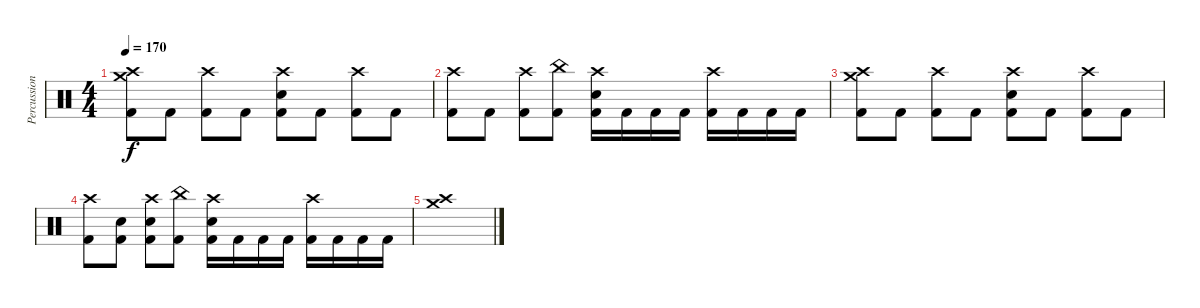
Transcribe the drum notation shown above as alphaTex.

\track ("Percussion" "Percussion") {instrument percussion}
\staff {score}
\articulation defaults
\ts (4 4)
\tempo 170
\clef neutral
\ks c
("Crash medium (hit)" "Crash high (hit)" "Kick (hit) 2").8{dy f} "Kick (hit) 2".8 ("Crash high (hit)" "Kick (hit) 2").8 "Kick (hit) 2".8 ("Snare (hit) 2" "Crash high (hit)" "Kick (hit) 2").8 "Kick (hit) 2".8 ("Crash high (hit)" "Kick (hit) 2").8 "Kick (hit) 2".8 |
("Crash high (hit)" "Kick (hit) 2").8 "Kick (hit) 2".8 ("Crash high (hit)" "Kick (hit) 2").8 ("China (hit)" "Kick (hit) 2").8 ("Snare (hit) 2" "Crash high (hit)" "Kick (hit) 2").16 "Kick (hit) 2".16 "Kick (hit) 2".16 "Kick (hit) 2".16 ("Crash high (hit)" "Kick (hit) 2").16 "Kick (hit) 2".16 "Kick (hit) 2".16 "Kick (hit) 2".16 |
("Crash medium (hit)" "Crash high (hit)" "Kick (hit) 2").8 "Kick (hit) 2".8 ("Crash high (hit)" "Kick (hit) 2").8 "Kick (hit) 2".8 ("Snare (hit) 2" "Crash high (hit)" "Kick (hit) 2").8 "Kick (hit) 2".8 ("Crash high (hit)" "Kick (hit) 2").8 "Kick (hit) 2".8 |
("Crash high (hit)" "Kick (hit) 2").8 ("Snare (hit) 2" "Kick (hit) 2").8 ("Snare (hit) 2" "Crash high (hit)" "Kick (hit) 2").8 ("China (hit)" "Kick (hit) 2").8 ("Snare (hit) 2" "Crash high (hit)" "Kick (hit) 2").16 "Kick (hit) 2".16 "Kick (hit) 2".16 "Kick (hit) 2".16 ("Crash high (hit)" "Kick (hit) 2").16 "Kick (hit) 2".16 "Kick (hit) 2".16 "Kick (hit) 2".16 |
("Crash medium (hit)" "Crash high (hit)").1
